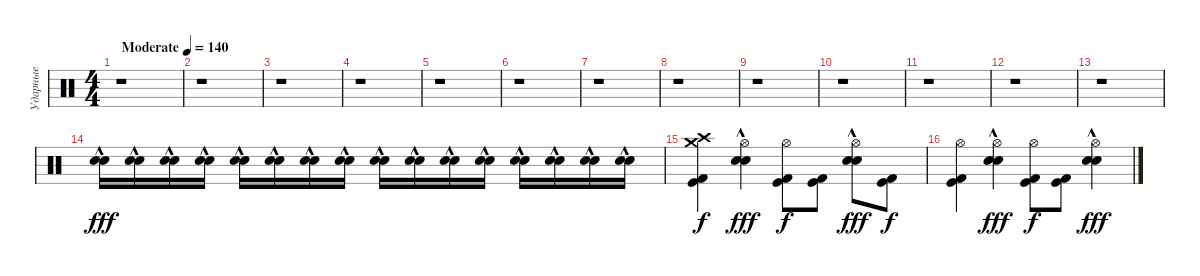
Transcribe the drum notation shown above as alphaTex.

\track ("Ударные" "Ударные") {instrument percussion}
\staff {score}
\articulation defaults
\ts (4 4)
\tempo (140 "Moderate")
\clef neutral
\ks c
r.1{dy fff} |
r.1 |
r.1 |
r.1 |
r.1 |
r.1 |
r.1 |
r.1 |
r.1 |
r.1 |
r.1 |
r.1 |
r.1 |
("Snare (hit) 2"{hac} "Electric Snare (hit)"{hac}).16 ("Snare (hit) 2"{hac} "Electric Snare (hit)"{hac}).16 ("Snare (hit) 2"{hac} "Electric Snare (hit)"{hac}).16 ("Snare (hit) 2"{hac} "Electric Snare (hit)"{hac}).16 ("Snare (hit) 2"{hac} "Electric Snare (hit)"{hac}).16 ("Snare (hit) 2"{hac} "Electric Snare (hit)"{hac}).16 ("Snare (hit) 2"{hac} "Electric Snare (hit)"{hac}).16 ("Snare (hit) 2"{hac} "Electric Snare (hit)"{hac}).16 ("Snare (hit) 2"{hac} "Electric Snare (hit)"{hac}).16 ("Snare (hit) 2"{hac} "Electric Snare (hit)"{hac}).16 ("Snare (hit) 2"{hac} "Electric Snare (hit)"{hac}).16 ("Snare (hit) 2"{hac} "Electric Snare (hit)"{hac}).16 ("Snare (hit) 2"{hac} "Electric Snare (hit)"{hac}).16 ("Snare (hit) 2"{hac} "Electric Snare (hit)"{hac}).16 ("Snare (hit) 2"{hac} "Electric Snare (hit)"{hac}).16 ("Snare (hit) 2"{hac} "Electric Snare (hit)"{hac}).16 |
("Crash high (hit)" "Kick (hit)" "Kick (hit) 2" "Crash medium (hit)").4{dy f} ("Hi-Hat (open)" "Snare (hit) 2"{hac} "Electric Snare (hit)"{hac}).4{dy fff} ("Hi-Hat (open)" "Kick (hit)" "Kick (hit) 2").8{dy f} ("Kick (hit)" "Kick (hit) 2").8 ("Hi-Hat (open)" "Snare (hit) 2"{hac} "Electric Snare (hit)"{hac}).8{dy fff} ("Kick (hit)" "Kick (hit) 2").8{dy f} |
("Hi-Hat (open)" "Kick (hit)" "Kick (hit) 2").4 ("Hi-Hat (open)" "Snare (hit) 2"{hac} "Electric Snare (hit)"{hac}).4{dy fff} ("Hi-Hat (open)" "Kick (hit)" "Kick (hit) 2").8{dy f} ("Kick (hit)" "Kick (hit) 2").8 ("Hi-Hat (open)" "Snare (hit) 2"{hac} "Electric Snare (hit)"{hac}).4{dy fff}
